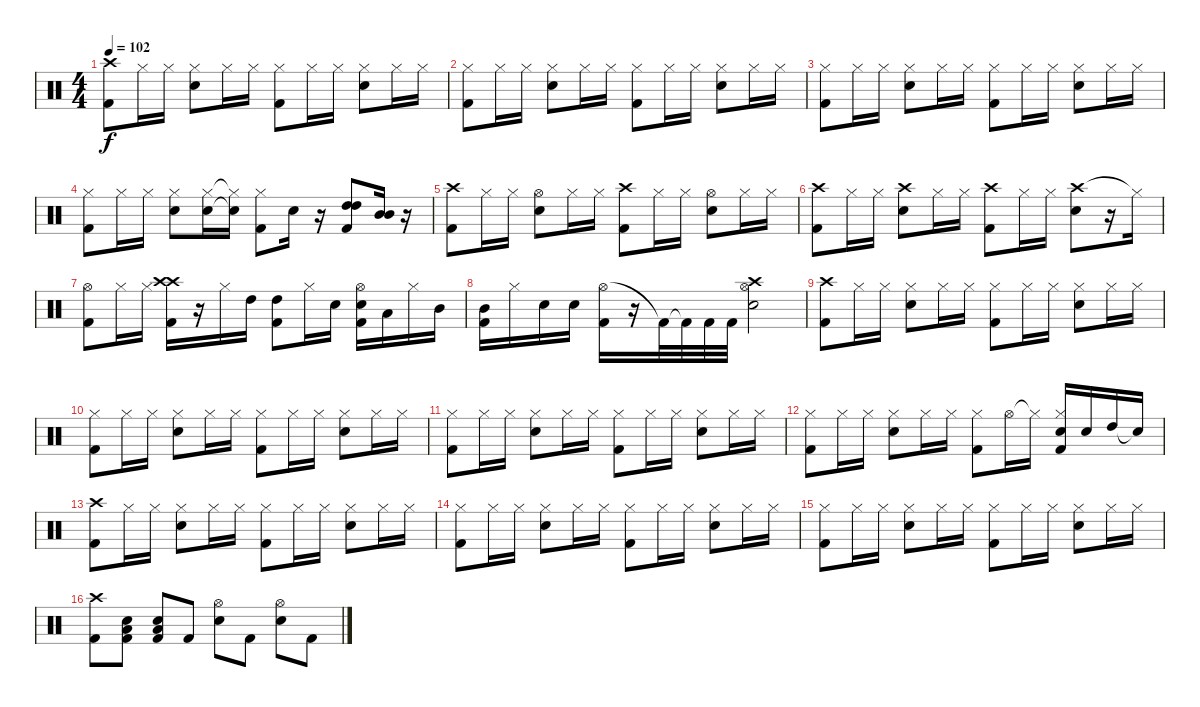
\track "" {instrument percussion}
\staff {score}
\articulation defaults
\ts (4 4)
\tempo 102
\clef neutral
\ks c
("Crash high (hit)" "Kick (hit) 2").8{dy f} "Hi-Hat (closed)".16 "Hi-Hat (closed)".16 ("Hi-Hat (closed)" "Snare (hit) 2").8 "Hi-Hat (closed)".16 "Hi-Hat (closed)".16 ("Hi-Hat (closed)" "Kick (hit) 2").8 "Hi-Hat (closed)".16 "Hi-Hat (closed)".16 ("Hi-Hat (closed)" "Snare (hit) 2").8 "Hi-Hat (closed)".16 "Hi-Hat (closed)".16 |
("Hi-Hat (closed)" "Kick (hit) 2").8 "Hi-Hat (closed)".16 "Hi-Hat (closed)".16 ("Hi-Hat (closed)" "Snare (hit) 2").8 "Hi-Hat (closed)".16 "Hi-Hat (closed)".16 ("Hi-Hat (closed)" "Kick (hit) 2").8 "Hi-Hat (closed)".16 "Hi-Hat (closed)".16 ("Hi-Hat (closed)" "Snare (hit) 2").8 "Hi-Hat (closed)".16 "Hi-Hat (closed)".16 |
("Hi-Hat (closed)" "Kick (hit) 2").8 "Hi-Hat (closed)".16 "Hi-Hat (closed)".16 ("Hi-Hat (closed)" "Snare (hit) 2").8 "Hi-Hat (closed)".16 "Hi-Hat (closed)".16 ("Hi-Hat (closed)" "Kick (hit) 2").8 "Hi-Hat (closed)".16 "Hi-Hat (closed)".16 ("Hi-Hat (closed)" "Snare (hit) 2").8 "Hi-Hat (closed)".16 "Hi-Hat (closed)".16 |
("Hi-Hat (closed)" "Kick (hit) 2").8 "Hi-Hat (closed)".16 "Hi-Hat (closed)".16 ("Hi-Hat (closed)" "Snare (hit) 2").8 ("Hi-Hat (closed)" "Snare (hit) 2").16 ("Hi-Hat (closed)"{t} "Snare (hit)"{t}).16 ("Hi-Hat (closed)" "Kick (hit) 2").8 "Snare (hit) 2".16 r.16 ("High Tom (hit)" "High Tom (hit)" "Kick (hit) 2").8 ("Mid Tom (hit)" "Mid Tom (hit)").16 r.16 |
("Crash high (hit)" "Kick (hit) 2").8 "Hi-Hat (closed)".16 "Hi-Hat (closed)".16 ("Hi-Hat (open)" "Snare (hit) 2").8 "Hi-Hat (closed)".16 "Hi-Hat (closed)".16 ("Crash high (hit)" "Kick (hit) 2").8 "Hi-Hat (closed)".16 "Hi-Hat (closed)".16 ("Hi-Hat (open)" "Snare (hit) 2").8 "Hi-Hat (closed)".16 "Hi-Hat (closed)".16 |
("Crash high (hit)" "Kick (hit) 2").8 "Hi-Hat (closed)".16 "Hi-Hat (closed)".16 ("Crash high (hit)" "Snare (hit) 2").8 "Hi-Hat (closed)".16 "Hi-Hat (closed)".16 ("Crash high (hit)" "Kick (hit) 2").8 "Hi-Hat (closed)".16 "Hi-Hat (closed)".16 ("Crash high (hit)" "Snare (hit) 2").8 r.16 "Hi-Hat (closed)"{t}.16 |
("Hi-Hat (open)" "Kick (hit) 2").8 "Hi-Hat (closed)".16 "Hi-Hat (closed)".16 ("Crash high (hit)" "Crash high (hit)" "Kick (hit) 2").16 r.16 "Hi-Hat (closed)".16 "High Tom (hit)".16 ("High Tom (hit)" "Kick (hit) 2").8 "Hi-Hat (closed)".16 "Snare (hit) 2".16 ("Hi-Hat (open)" "Snare (hit) 2" "Kick (hit) 2").16 "Low Tom (hit)".16 "Hi-Hat (closed)".16 "Mid Tom (hit)".16 |
("Mid Tom (hit)" "Kick (hit) 2").16 "Hi-Hat (closed)".16 "Snare (hit) 2".16 "Snare (hit) 2".16 ("Hi-Hat (open)" "Kick (hit) 2").16 r.16 "Kick (hit) 2"{t}.32 "Kick (hit) 2"{t}.32 "Kick (hit) 2".32 "Kick (hit) 2".32 ("Crash high (hit)" "Hi-Hat (open)" "Snare (hit) 2").2 |
("Crash high (hit)" "Kick (hit) 2").8{txt ""} "Hi-Hat (closed)".16 "Hi-Hat (closed)".16 ("Hi-Hat (closed)" "Snare (hit) 2").8 "Hi-Hat (closed)".16 "Hi-Hat (closed)".16 ("Hi-Hat (closed)" "Kick (hit) 2").8 "Hi-Hat (closed)".16 "Hi-Hat (closed)".16 ("Hi-Hat (closed)" "Snare (hit) 2").8 "Hi-Hat (closed)".16 "Hi-Hat (closed)".16 |
("Hi-Hat (closed)" "Kick (hit) 2").8 "Hi-Hat (closed)".16 "Hi-Hat (closed)".16 ("Hi-Hat (closed)" "Snare (hit) 2").8 "Hi-Hat (closed)".16 "Hi-Hat (closed)".16 ("Hi-Hat (closed)" "Kick (hit) 2").8 "Hi-Hat (closed)".16 "Hi-Hat (closed)".16 ("Hi-Hat (closed)" "Snare (hit) 2").8 "Hi-Hat (closed)".16 "Hi-Hat (closed)".16 |
("Hi-Hat (closed)" "Kick (hit) 2").8 "Hi-Hat (closed)".16 "Hi-Hat (closed)".16 ("Hi-Hat (closed)" "Snare (hit) 2").8 "Hi-Hat (closed)".16 "Hi-Hat (closed)".16 ("Hi-Hat (closed)" "Kick (hit) 2").8 "Hi-Hat (closed)".16 "Hi-Hat (closed)".16 ("Hi-Hat (closed)" "Snare (hit) 2").8 "Hi-Hat (closed)".16 "Hi-Hat (closed)".16 |
("Hi-Hat (closed)" "Kick (hit) 2").8 "Hi-Hat (closed)".16 "Hi-Hat (closed)".16 ("Hi-Hat (closed)" "Snare (hit) 2").8 "Hi-Hat (closed)".16 "Hi-Hat (closed)".16 ("Hi-Hat (closed)" "Kick (hit) 2").8 "Hi-Hat (open)".16 "Hi-Hat (closed)"{t}.16 ("Hi-Hat (closed)" "Snare (hit) 2" "Kick (hit) 2").16 "Snare (hit) 2".16 "High Tom (hit)".16 "Snare (hit)"{t}.16 |
("Crash high (hit)" "Kick (hit) 2").8 "Hi-Hat (closed)".16 "Hi-Hat (closed)".16 ("Hi-Hat (closed)" "Snare (hit) 2").8 "Hi-Hat (closed)".16 "Hi-Hat (closed)".16 ("Hi-Hat (closed)" "Kick (hit) 2").8 "Hi-Hat (closed)".16 "Hi-Hat (closed)".16 ("Hi-Hat (closed)" "Snare (hit) 2").8 "Hi-Hat (closed)".16 "Hi-Hat (closed)".16 |
("Hi-Hat (closed)" "Kick (hit) 2").8 "Hi-Hat (closed)".16 "Hi-Hat (closed)".16 ("Hi-Hat (closed)" "Snare (hit) 2").8 "Hi-Hat (closed)".16 "Hi-Hat (closed)".16 ("Hi-Hat (closed)" "Kick (hit) 2").8 "Hi-Hat (closed)".16 "Hi-Hat (closed)".16 ("Hi-Hat (closed)" "Snare (hit) 2").8 "Hi-Hat (closed)".16 "Hi-Hat (closed)".16 |
("Hi-Hat (closed)" "Kick (hit) 2").8 "Hi-Hat (closed)".16 "Hi-Hat (closed)".16 ("Hi-Hat (closed)" "Snare (hit) 2").8 "Hi-Hat (closed)".16 "Hi-Hat (closed)".16 ("Hi-Hat (closed)" "Kick (hit) 2").8 "Hi-Hat (closed)".16 "Hi-Hat (closed)".16 ("Hi-Hat (closed)" "Snare (hit) 2").8 "Hi-Hat (closed)".16 "Hi-Hat (closed)".16 |
("Crash high (hit)" "Kick (hit) 2").8 ("Snare (hit) 2" "Low Tom (hit)" "Kick (hit) 2").8 ("Snare (hit) 2" "Low Tom (hit)" "Kick (hit) 2").8 "Kick (hit) 2".8 ("Hi-Hat (open)" "Snare (hit) 2").8 "Kick (hit) 2".8 ("Hi-Hat (open)" "Snare (hit) 2").8 "Kick (hit) 2".8
